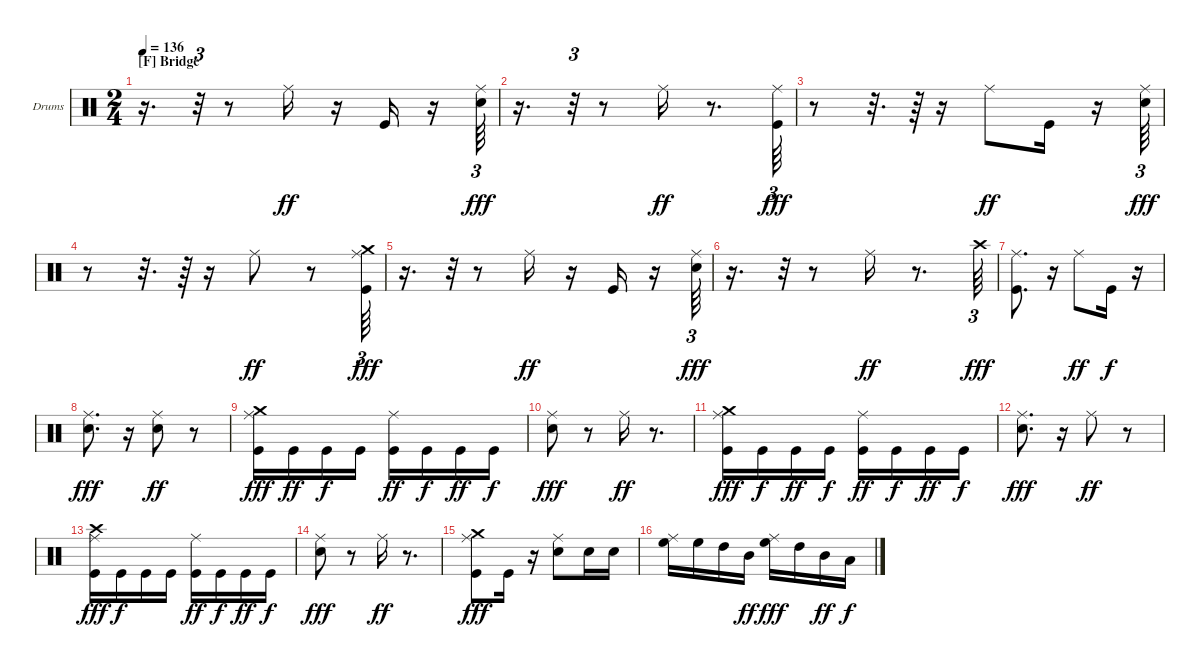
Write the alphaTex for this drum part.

\bracketExtendMode groupsimilarinstruments
\firstSystemTrackNameOrientation horizontal
\otherSystemsTrackNameOrientation horizontal
\track ("Drumkit" "Drums") {solo instrument percussion}
\staff {score}
\articulation defaults
\ts (2 4)
\section ("F" "Bridge")
\tempo 136
\clef neutral
\ks c
r.16{d dy fff} r.32{tu (3 2)} r.8 "Ride (middle)".16{dy ff} r.16 "Kick (hit)".16 r.16 ("Ride (middle)" "Snare (hit) 2").64{tu (3 2) dy fff} |
r.16{d} r.32{tu (3 2)} r.8 "Ride (middle)".16{dy ff} r.8{d} ("Ride (middle)" "Kick (hit)").64{tu (3 2) dy fff} |
r.8 r.32{d} r.64 r.16 "Ride (middle)".8{dy ff} "Kick (hit)".16 r.16 ("Ride (middle)" "Snare (hit) 2").64{tu (3 2) dy fff} |
r.8 r.32{d} r.64 r.16 "Ride (middle)".8{dy ff} r.8 ("Crash medium (hit)" "Ride (middle)" "Kick (hit)").64{tu (3 2) dy fff} |
r.16{d} r.32{tu (3 2)} r.8 "Ride (middle)".16{dy ff} r.16 "Kick (hit)".16 r.16 ("Ride (middle)" "Snare (hit) 2").64{tu (3 2) dy fff} |
r.16{d} r.32{tu (3 2)} r.8 "Ride (middle)".16{dy ff} r.8{d} "Crash high (hit)".64{tu (3 2) dy fff} |
("Ride (middle)" "Kick (hit)").8{d} r.16 "Ride (middle)".8{dy ff} "Kick (hit)".16{dy f} r.16 |
("Ride (middle)" "Snare (hit) 2").8{d dy fff} r.16 ("Ride (middle)" "Snare (hit) 2").8{dy ff} r.8 |
("Crash medium (hit)" "Ride (middle)" "Kick (hit)").16{dy fff} "Kick (hit)".16{dy ff} "Kick (hit)".16{dy f} "Kick (hit)".16 ("Ride (middle)" "Kick (hit)").16{dy ff} "Kick (hit)".16{dy f} "Kick (hit)".16{dy ff} "Kick (hit)".16{dy f} |
("Ride (middle)" "Snare (hit) 2").8{dy fff} r.8 "Ride (middle)".16{dy ff} r.8{d} |
("Ride (middle)" "Kick (hit)" "Crash medium (hit)").16{dy fff} "Kick (hit)".16{dy f} "Kick (hit)".16{dy ff} "Kick (hit)".16{dy f} ("Ride (middle)" "Kick (hit)").16{dy ff} "Kick (hit)".16{dy f} "Kick (hit)".16{dy ff} "Kick (hit)".16{dy f} |
("Ride (middle)" "Snare (hit) 2").8{d dy fff} r.16 "Ride (middle)".8{dy ff} r.8 |
("Ride (middle)" "Kick (hit)" "Crash high (hit)").16{dy fff} "Kick (hit)".16{dy f} "Kick (hit)".16 "Kick (hit)".16 ("Ride (middle)" "Kick (hit)").16{dy ff} "Kick (hit)".16{dy f} "Kick (hit)".16{dy ff} "Kick (hit)".16{dy f} |
("Ride (middle)" "Snare (hit) 2").8{dy fff} r.8 "Ride (middle)".16{dy ff} r.8{d} |
("Kick (hit)" "Ride (middle)" "Crash medium (hit)").8{dy fff} "Kick (hit)".16 r.16 ("Snare (hit) 2" "Ride (middle)").8 "Snare (hit) 2".16 "Snare (hit) 2".16 |
("High Floor Tom (hit)" "Ride (middle)").16 "High Floor Tom (hit)".16 "High Tom (hit)".16 "Mid Tom (hit)".16{dy ff} ("High Floor Tom (hit)" "Ride (middle)").16{dy fff} "High Tom (hit)".16 "Mid Tom (hit)".16{dy ff} "Low Tom (hit)".16{dy f}
